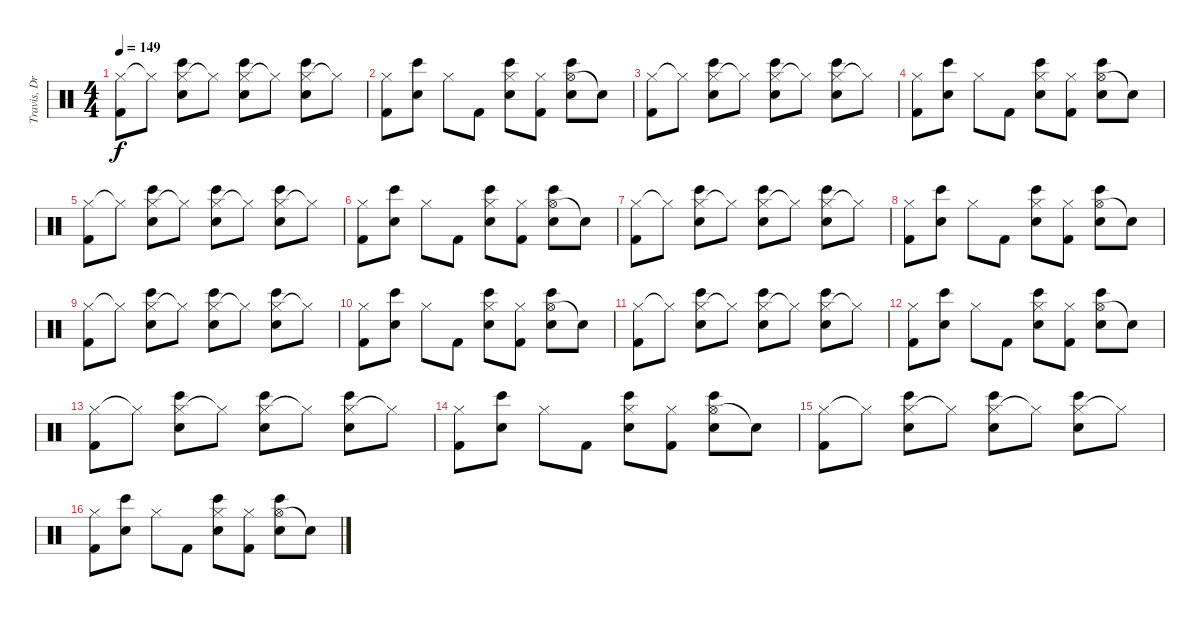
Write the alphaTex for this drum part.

\track ("Travis, Drums {Tabbed by Peter B.}" "Travis, Dr") {instrument percussion}
\staff {score}
\articulation defaults
\ts (4 4)
\tempo 149
\clef neutral
\ks c
("Hi-Hat (closed)" "Kick (hit) 2").8{dy f} "Hi-Hat (closed)"{t}.8 ("Hi-Hat (closed)" "Bongo High (hit)" "Snare (hit) 2").8 "Hi-Hat (closed)"{t}.8 ("Hi-Hat (closed)" "Bongo High (hit)" "Snare (hit) 2").8 "Hi-Hat (closed)"{t}.8 ("Hi-Hat (closed)" "Bongo High (hit)" "Snare (hit) 2").8 "Hi-Hat (closed)"{t}.8 |
("Hi-Hat (closed)" "Kick (hit) 2").8 ("Bongo High (hit)" "Snare (hit) 2").8 "Hi-Hat (closed)".8 "Kick (hit) 2".8 ("Hi-Hat (closed)" "Bongo High (hit)" "Snare (hit) 2").8 ("Hi-Hat (closed)" "Kick (hit) 2").8 ("Hi-Hat (open)" "Bongo High (hit)" "Snare (hit) 2").8 "Snare (hit)"{t}.8 |
("Hi-Hat (closed)" "Kick (hit) 2").8 "Hi-Hat (closed)"{t}.8 ("Hi-Hat (closed)" "Bongo High (hit)" "Snare (hit) 2").8 "Hi-Hat (closed)"{t}.8 ("Hi-Hat (closed)" "Bongo High (hit)" "Snare (hit) 2").8 "Hi-Hat (closed)"{t}.8 ("Hi-Hat (closed)" "Bongo High (hit)" "Snare (hit) 2").8 "Hi-Hat (closed)"{t}.8 |
("Hi-Hat (closed)" "Kick (hit) 2").8 ("Bongo High (hit)" "Snare (hit) 2").8 "Hi-Hat (closed)".8 "Kick (hit) 2".8 ("Hi-Hat (closed)" "Bongo High (hit)" "Snare (hit) 2").8 ("Hi-Hat (closed)" "Kick (hit) 2").8 ("Hi-Hat (open)" "Bongo High (hit)" "Snare (hit) 2").8 "Snare (hit)"{t}.8 |
("Hi-Hat (closed)" "Kick (hit) 2").8 "Hi-Hat (closed)"{t}.8 ("Hi-Hat (closed)" "Bongo High (hit)" "Snare (hit) 2").8 "Hi-Hat (closed)"{t}.8 ("Hi-Hat (closed)" "Bongo High (hit)" "Snare (hit) 2").8 "Hi-Hat (closed)"{t}.8 ("Hi-Hat (closed)" "Bongo High (hit)" "Snare (hit) 2").8 "Hi-Hat (closed)"{t}.8 |
("Hi-Hat (closed)" "Kick (hit) 2").8 ("Bongo High (hit)" "Snare (hit) 2").8 "Hi-Hat (closed)".8 "Kick (hit) 2".8 ("Hi-Hat (closed)" "Bongo High (hit)" "Snare (hit) 2").8 ("Hi-Hat (closed)" "Kick (hit) 2").8 ("Hi-Hat (open)" "Bongo High (hit)" "Snare (hit) 2").8 "Snare (hit)"{t}.8 |
("Hi-Hat (closed)" "Kick (hit) 2").8 "Hi-Hat (closed)"{t}.8 ("Hi-Hat (closed)" "Bongo High (hit)" "Snare (hit) 2").8 "Hi-Hat (closed)"{t}.8 ("Hi-Hat (closed)" "Bongo High (hit)" "Snare (hit) 2").8 "Hi-Hat (closed)"{t}.8 ("Hi-Hat (closed)" "Bongo High (hit)" "Snare (hit) 2").8 "Hi-Hat (closed)"{t}.8 |
("Hi-Hat (closed)" "Kick (hit) 2").8 ("Bongo High (hit)" "Snare (hit) 2").8 "Hi-Hat (closed)".8 "Kick (hit) 2".8 ("Hi-Hat (closed)" "Bongo High (hit)" "Snare (hit) 2").8 ("Hi-Hat (closed)" "Kick (hit) 2").8 ("Hi-Hat (open)" "Bongo High (hit)" "Snare (hit) 2").8 "Snare (hit)"{t}.8 |
("Hi-Hat (closed)" "Kick (hit) 2").8 "Hi-Hat (closed)"{t}.8 ("Hi-Hat (closed)" "Bongo High (hit)" "Snare (hit) 2").8 "Hi-Hat (closed)"{t}.8 ("Hi-Hat (closed)" "Bongo High (hit)" "Snare (hit) 2").8 "Hi-Hat (closed)"{t}.8 ("Hi-Hat (closed)" "Bongo High (hit)" "Snare (hit) 2").8 "Hi-Hat (closed)"{t}.8 |
("Hi-Hat (closed)" "Kick (hit) 2").8 ("Bongo High (hit)" "Snare (hit) 2").8 "Hi-Hat (closed)".8 "Kick (hit) 2".8 ("Hi-Hat (closed)" "Bongo High (hit)" "Snare (hit) 2").8 ("Hi-Hat (closed)" "Kick (hit) 2").8 ("Hi-Hat (open)" "Bongo High (hit)" "Snare (hit) 2").8 "Snare (hit)"{t}.8 |
("Hi-Hat (closed)" "Kick (hit) 2").8 "Hi-Hat (closed)"{t}.8 ("Hi-Hat (closed)" "Bongo High (hit)" "Snare (hit) 2").8 "Hi-Hat (closed)"{t}.8 ("Hi-Hat (closed)" "Bongo High (hit)" "Snare (hit) 2").8 "Hi-Hat (closed)"{t}.8 ("Hi-Hat (closed)" "Bongo High (hit)" "Snare (hit) 2").8 "Hi-Hat (closed)"{t}.8 |
("Hi-Hat (closed)" "Kick (hit) 2").8 ("Bongo High (hit)" "Snare (hit) 2").8 "Hi-Hat (closed)".8 "Kick (hit) 2".8 ("Hi-Hat (closed)" "Bongo High (hit)" "Snare (hit) 2").8 ("Hi-Hat (closed)" "Kick (hit) 2").8 ("Hi-Hat (open)" "Bongo High (hit)" "Snare (hit) 2").8 "Snare (hit)"{t}.8 |
("Hi-Hat (closed)" "Kick (hit) 2").8 "Hi-Hat (closed)"{t}.8 ("Hi-Hat (closed)" "Bongo High (hit)" "Snare (hit) 2").8 "Hi-Hat (closed)"{t}.8 ("Hi-Hat (closed)" "Bongo High (hit)" "Snare (hit) 2").8 "Hi-Hat (closed)"{t}.8 ("Hi-Hat (closed)" "Bongo High (hit)" "Snare (hit) 2").8 "Hi-Hat (closed)"{t}.8 |
("Hi-Hat (closed)" "Kick (hit) 2").8 ("Bongo High (hit)" "Snare (hit) 2").8 "Hi-Hat (closed)".8 "Kick (hit) 2".8 ("Hi-Hat (closed)" "Bongo High (hit)" "Snare (hit) 2").8 ("Hi-Hat (closed)" "Kick (hit) 2").8 ("Hi-Hat (open)" "Bongo High (hit)" "Snare (hit) 2").8 "Snare (hit)"{t}.8 |
("Hi-Hat (closed)" "Kick (hit) 2").8 "Hi-Hat (closed)"{t}.8 ("Hi-Hat (closed)" "Bongo High (hit)" "Snare (hit) 2").8 "Hi-Hat (closed)"{t}.8 ("Hi-Hat (closed)" "Bongo High (hit)" "Snare (hit) 2").8 "Hi-Hat (closed)"{t}.8 ("Hi-Hat (closed)" "Bongo High (hit)" "Snare (hit) 2").8 "Hi-Hat (closed)"{t}.8 |
("Hi-Hat (closed)" "Kick (hit) 2").8 ("Bongo High (hit)" "Snare (hit) 2").8 "Hi-Hat (closed)".8 "Kick (hit) 2".8 ("Hi-Hat (closed)" "Bongo High (hit)" "Snare (hit) 2").8 ("Hi-Hat (closed)" "Kick (hit) 2").8 ("Hi-Hat (open)" "Bongo High (hit)" "Snare (hit) 2").8 "Snare (hit)"{t}.8
